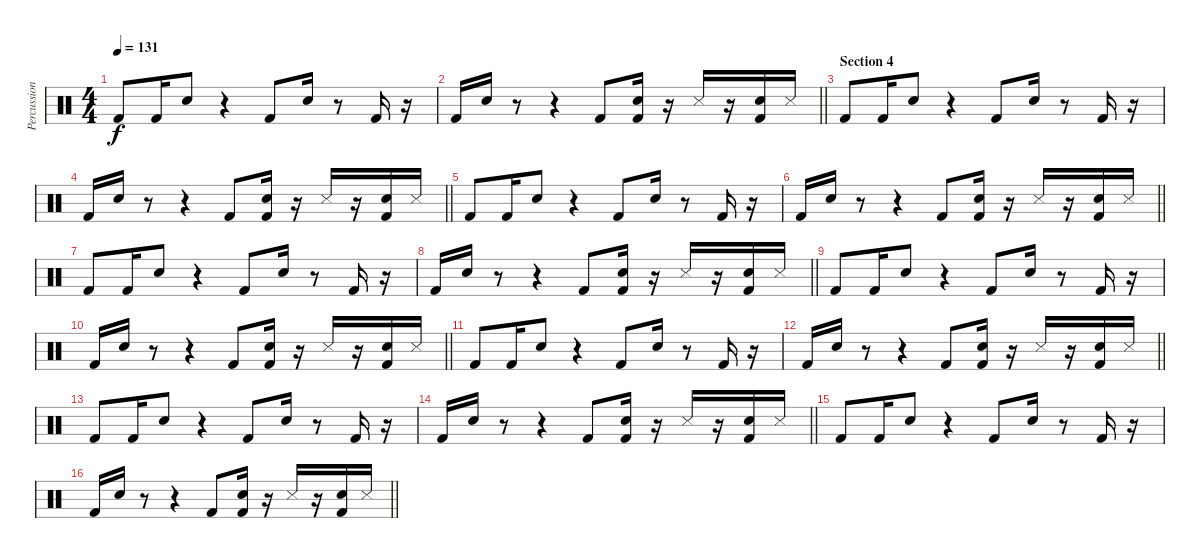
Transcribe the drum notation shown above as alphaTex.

\track ("Percussion" "Percussion") {instrument percussion}
\staff {score}
\articulation defaults
\ts (4 4)
\tempo 131
\clef neutral
\ks c "Kick (hit) 2".8{dy f} "Kick (hit) 2".16 "Snare (hit) 2".8
r.4 "Kick (hit) 2".8 "Snare (hit) 2".16 r.8 "Kick (hit) 2".16 r.16 |
\barLineRight lightlight "Kick (hit) 2".16 "Snare (hit) 2".16
r.8 r.4 "Kick (hit) 2".8 ("Snare (hit) 2" "Kick (hit) 2").16 r.16 "Snare (side stick) 3".16 r.16 ("Snare (hit) 2" "Kick (hit) 2").16 "Snare (side stick) 3".16 |
\section ("" "Section 4")
"Kick (hit) 2".8 "Kick (hit) 2".16 "Snare (hit) 2".8 r.4 "Kick (hit) 2".8 "Snare (hit) 2".16 r.8 "Kick (hit) 2".16 r.16 |
\barLineRight lightlight "Kick (hit) 2".16 "Snare (hit) 2".16
r.8 r.4 "Kick (hit) 2".8 ("Snare (hit) 2" "Kick (hit) 2").16 r.16 "Snare (side stick) 3".16 r.16 ("Snare (hit) 2" "Kick (hit) 2").16 "Snare (side stick) 3".16 |
"Kick (hit) 2".8 "Kick (hit) 2".16 "Snare (hit) 2".8 r.4 "Kick (hit) 2".8 "Snare (hit) 2".16 r.8 "Kick (hit) 2".16 r.16 |
\barLineRight lightlight "Kick (hit) 2".16 "Snare (hit) 2".16
r.8 r.4 "Kick (hit) 2".8 ("Snare (hit) 2" "Kick (hit) 2").16 r.16 "Snare (side stick) 3".16 r.16 ("Snare (hit) 2" "Kick (hit) 2").16 "Snare (side stick) 3".16 |
"Kick (hit) 2".8 "Kick (hit) 2".16 "Snare (hit) 2".8 r.4 "Kick (hit) 2".8 "Snare (hit) 2".16 r.8 "Kick (hit) 2".16 r.16 |
\barLineRight lightlight "Kick (hit) 2".16 "Snare (hit) 2".16
r.8 r.4 "Kick (hit) 2".8 ("Snare (hit) 2" "Kick (hit) 2").16 r.16 "Snare (side stick) 3".16 r.16 ("Snare (hit) 2" "Kick (hit) 2").16 "Snare (side stick) 3".16 |
"Kick (hit) 2".8 "Kick (hit) 2".16 "Snare (hit) 2".8 r.4 "Kick (hit) 2".8 "Snare (hit) 2".16 r.8 "Kick (hit) 2".16 r.16 |
\barLineRight lightlight "Kick (hit) 2".16 "Snare (hit) 2".16
r.8 r.4 "Kick (hit) 2".8 ("Snare (hit) 2" "Kick (hit) 2").16 r.16 "Snare (side stick) 3".16 r.16 ("Snare (hit) 2" "Kick (hit) 2").16 "Snare (side stick) 3".16 |
"Kick (hit) 2".8 "Kick (hit) 2".16 "Snare (hit) 2".8 r.4 "Kick (hit) 2".8 "Snare (hit) 2".16 r.8 "Kick (hit) 2".16 r.16 |
\barLineRight lightlight "Kick (hit) 2".16 "Snare (hit) 2".16
r.8 r.4 "Kick (hit) 2".8 ("Snare (hit) 2" "Kick (hit) 2").16 r.16 "Snare (side stick) 3".16 r.16 ("Snare (hit) 2" "Kick (hit) 2").16 "Snare (side stick) 3".16 |
"Kick (hit) 2".8 "Kick (hit) 2".16 "Snare (hit) 2".8 r.4 "Kick (hit) 2".8 "Snare (hit) 2".16 r.8 "Kick (hit) 2".16 r.16 |
\barLineRight lightlight "Kick (hit) 2".16 "Snare (hit) 2".16
r.8 r.4 "Kick (hit) 2".8 ("Snare (hit) 2" "Kick (hit) 2").16 r.16 "Snare (side stick) 3".16 r.16 ("Snare (hit) 2" "Kick (hit) 2").16 "Snare (side stick) 3".16 |
"Kick (hit) 2".8 "Kick (hit) 2".16 "Snare (hit) 2".8 r.4 "Kick (hit) 2".8 "Snare (hit) 2".16 r.8 "Kick (hit) 2".16 r.16 |
\barLineRight lightlight "Kick (hit) 2".16 "Snare (hit) 2".16
r.8 r.4 "Kick (hit) 2".8 ("Snare (hit) 2" "Kick (hit) 2").16 r.16 "Snare (side stick) 3".16 r.16 ("Snare (hit) 2" "Kick (hit) 2").16 "Snare (side stick) 3".16
